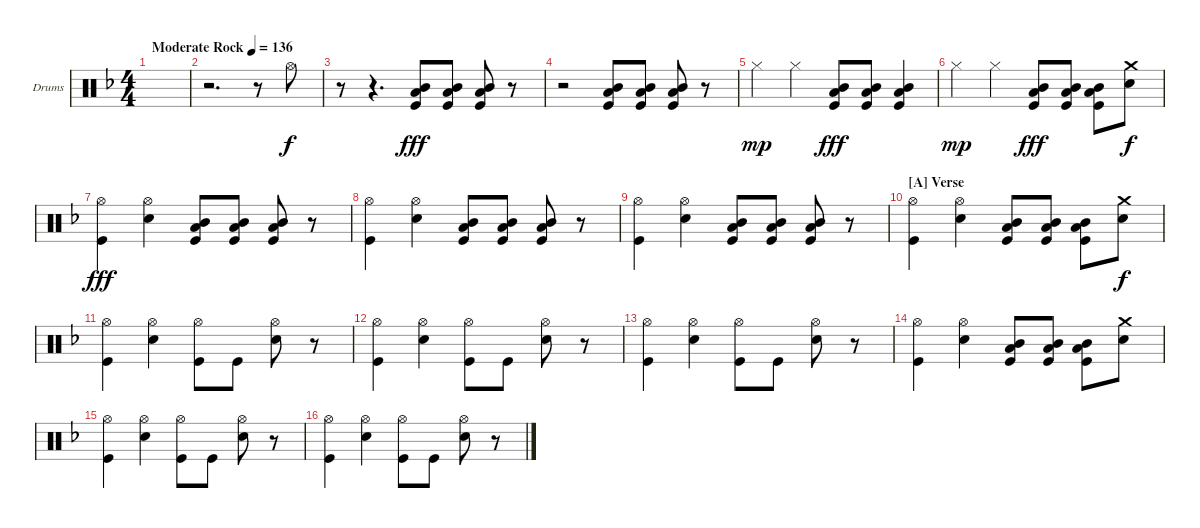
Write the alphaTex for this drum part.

\defaultSystemsLayout 4
\bracketExtendMode groupsimilarinstruments
\firstSystemTrackNameOrientation horizontal
\otherSystemsTrackNameOrientation horizontal
\track ("Drumkit" "Drums") {instrument percussion}
\staff {score}
\articulation defaults
\ts (4 4)
\tempo (136 "Moderate Rock")
\clef neutral
\scale
1.14376
\ks f
|
\scale
0.928121 r.2{d} r.8 "Hi-Hat (open)".8 |
\scale
0.928121 r.8 r.4{d} ("Kick (hit)" "Low Tom (hit)" "Mid Tom (hit)").8{dy fff} ("Kick (hit)" "Low Tom (hit)" "Mid Tom (hit)").8 ("Kick (hit)" "Low Tom (hit)" "Mid Tom (hit)").8 r.8 |
\scale
1.08323 r.2 ("Kick (hit)" "Low Tom (hit)" "Mid Tom (hit)").8 ("Kick (hit)" "Low Tom (hit)" "Mid Tom (hit)").8 ("Kick (hit)" "Low Tom (hit)" "Mid Tom (hit)").8 r.8 |
\scale
0.958386 "Hi-Hat (closed)".4{dy mp} "Hi-Hat (closed)".4 ("Kick (hit)" "Low Tom (hit)" "Mid Tom (hit)").8{dy fff} ("Kick (hit)" "Low Tom (hit)" "Mid Tom (hit)").8 ("Kick (hit)" "Low Tom (hit)" "Mid Tom (hit)").4 |
\scale
0.958386 "Hi-Hat (closed)".4{dy mp} "Hi-Hat (closed)".4 ("Kick (hit)" "Low Tom (hit)" "Mid Tom (hit)").8{dy fff} ("Kick (hit)" "Low Tom (hit)" "Mid Tom (hit)").8 ("Kick (hit)" "Low Tom (hit)" "Mid Tom (hit)").8 ("Crash medium (hit)" "Snare (hit) 2").8{dy f} |
\scale
1.08323 ("Kick (hit)" "Hi-Hat (open)").4{dy fff} ("Snare (hit) 2" "Hi-Hat (open)").4 ("Kick (hit)" "Low Tom (hit)" "Mid Tom (hit)").8 ("Kick (hit)" "Low Tom (hit)" "Mid Tom (hit)").8 ("Kick (hit)" "Low Tom (hit)" "Mid Tom (hit)").8 r.8 |
\scale
0.958386 ("Kick (hit)" "Hi-Hat (open)").4 ("Snare (hit) 2" "Hi-Hat (open)").4 ("Kick (hit)" "Low Tom (hit)" "Mid Tom (hit)").8 ("Kick (hit)" "Low Tom (hit)" "Mid Tom (hit)").8 ("Kick (hit)" "Low Tom (hit)" "Mid Tom (hit)").8 r.8 |
\scale
0.958386 ("Kick (hit)" "Hi-Hat (open)").4 ("Snare (hit) 2" "Hi-Hat (open)").4 ("Kick (hit)" "Low Tom (hit)" "Mid Tom (hit)").8 ("Kick (hit)" "Low Tom (hit)" "Mid Tom (hit)").8 ("Kick (hit)" "Low Tom (hit)" "Mid Tom (hit)").8 r.8 |
\section ("A" "Verse")
\scale
1.08323 ("Kick (hit)" "Hi-Hat (open)").4 ("Snare (hit) 2" "Hi-Hat (open)").4 ("Kick (hit)" "Low Tom (hit)" "Mid Tom (hit)").8 ("Kick (hit)" "Low Tom (hit)" "Mid Tom (hit)").8 ("Kick (hit)" "Low Tom (hit)" "Mid Tom (hit)").8 ("Crash medium (hit)" "Snare (hit) 2").8{dy f} |
\scale
0.958386 ("Hi-Hat (open)" "Kick (hit)").4 ("Hi-Hat (open)" "Snare (hit) 2").4 ("Hi-Hat (open)" "Kick (hit)").8 "Kick (hit)".8 ("Hi-Hat (open)" "Snare (hit) 2").8 r.8 |
\scale
0.958386 ("Hi-Hat (open)" "Kick (hit)").4 ("Hi-Hat (open)" "Snare (hit) 2").4 ("Hi-Hat (open)" "Kick (hit)").8 "Kick (hit)".8 ("Hi-Hat (open)" "Snare (hit) 2").8 r.8 |
\scale
1.08323 ("Hi-Hat (open)" "Kick (hit)").4 ("Hi-Hat (open)" "Snare (hit) 2").4 ("Hi-Hat (open)" "Kick (hit)").8 "Kick (hit)".8 ("Hi-Hat (open)" "Snare (hit) 2").8 r.8 |
\scale
0.958386 ("Hi-Hat (open)" "Kick (hit)").4 ("Hi-Hat (open)" "Snare (hit) 2").4 ("Kick (hit)" "Mid Tom (hit)" "Low Tom (hit)").8 ("Kick (hit)" "Mid Tom (hit)" "Low Tom (hit)").8 ("Kick (hit)" "Mid Tom (hit)" "Low Tom (hit)").8 ("Crash medium (hit)" "Snare (hit) 2").8 |
\scale
0.958386 ("Hi-Hat (open)" "Kick (hit)").4 ("Hi-Hat (open)" "Snare (hit) 2").4 ("Hi-Hat (open)" "Kick (hit)").8 "Kick (hit)".8 ("Hi-Hat (open)" "Snare (hit) 2").8 r.8 |
\scale
1.08323 ("Hi-Hat (open)" "Kick (hit)").4 ("Hi-Hat (open)" "Snare (hit) 2").4 ("Hi-Hat (open)" "Kick (hit)").8 "Kick (hit)".8 ("Hi-Hat (open)" "Snare (hit) 2").8 r.8
